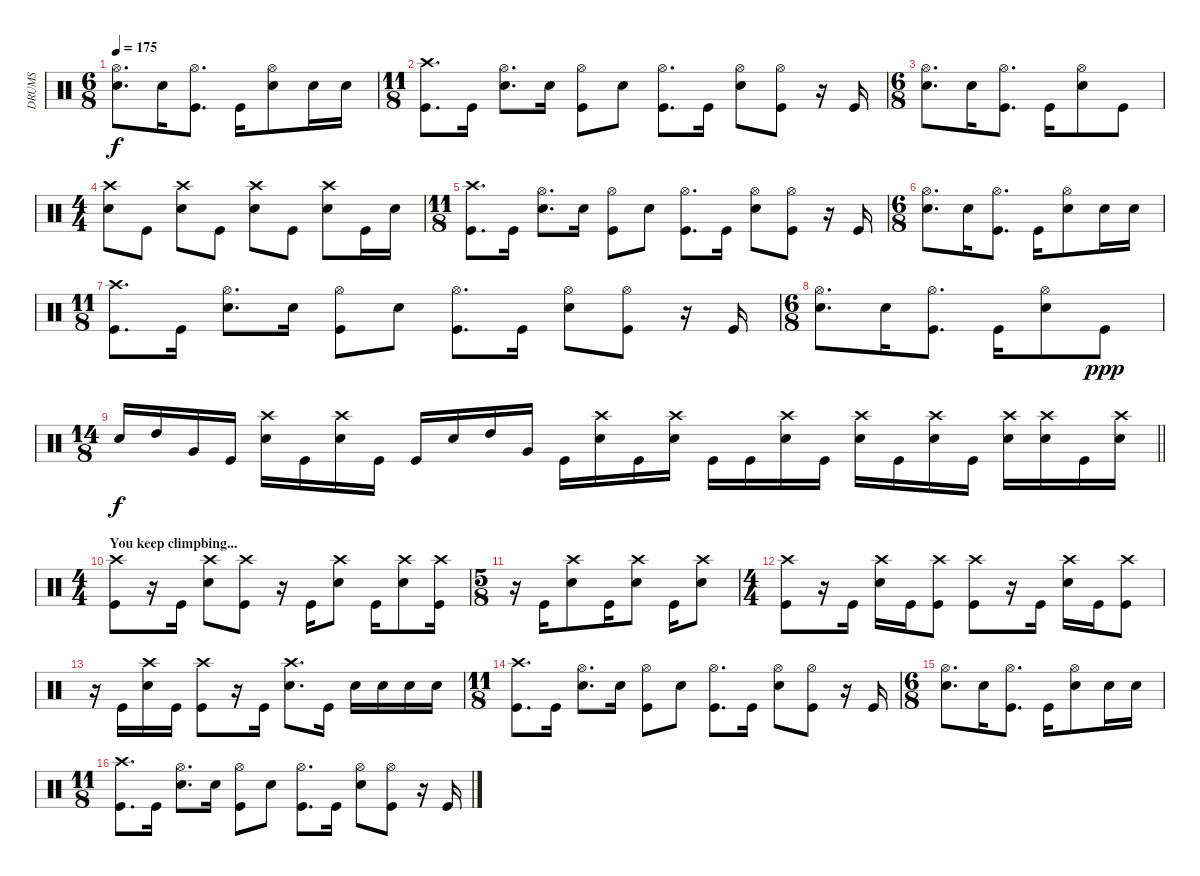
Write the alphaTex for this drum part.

\track ("DRUMS" "DRUMS") {instrument percussion}
\staff {score}
\articulation defaults
\ts (6 8)
\tempo 175
\clef neutral
\ks c
("Snare (hit) 2" "Hi-Hat (open)").8{d dy f} "Snare (hit) 2".16 ("Kick (hit)" "Hi-Hat (open)").8{d} "Kick (hit)".16 ("Snare (hit) 2" "Hi-Hat (open)").8 "Snare (hit) 2".16 "Snare (hit) 2".16 |
\ts (11 8)
("Crash high (hit)" "Kick (hit)").8{d} "Kick (hit)".16 ("Snare (hit) 2" "Hi-Hat (open)").8{d} "Snare (hit) 2".16 ("Kick (hit)" "Hi-Hat (open)").8 "Snare (hit) 2".8 ("Hi-Hat (open)" "Kick (hit)").8{d} "Kick (hit)".16 ("Snare (hit) 2" "Hi-Hat (open)").8 ("Kick (hit)" "Hi-Hat (open)").8 r.16 "Kick (hit)".16 |
\ts (6 8)
("Snare (hit) 2" "Hi-Hat (open)").8{d} "Snare (hit) 2".16 ("Kick (hit)" "Hi-Hat (open)").8{d} "Kick (hit)".16 ("Snare (hit) 2" "Hi-Hat (open)").8 "Kick (hit)".8 |
\ts (4 4)
("Snare (hit) 2" "Crash high (hit)").8 "Kick (hit)".8 ("Snare (hit) 2" "Crash high (hit)").8 "Kick (hit)".8 ("Snare (hit) 2" "Crash high (hit)").8 "Kick (hit)".8 ("Snare (hit) 2" "Crash high (hit)").8 "Kick (hit)".16 "Snare (hit) 2".16 |
\ts (11 8)
("Crash high (hit)" "Kick (hit)").8{d} "Kick (hit)".16 ("Snare (hit) 2" "Hi-Hat (open)").8{d} "Snare (hit) 2".16 ("Kick (hit)" "Hi-Hat (open)").8 "Snare (hit) 2".8 ("Hi-Hat (open)" "Kick (hit)").8{d} "Kick (hit)".16 ("Snare (hit) 2" "Hi-Hat (open)").8 ("Kick (hit)" "Hi-Hat (open)").8 r.16 "Kick (hit)".16 |
\ts (6 8)
("Snare (hit) 2" "Hi-Hat (open)").8{d} "Snare (hit) 2".16 ("Kick (hit)" "Hi-Hat (open)").8{d} "Kick (hit)".16 ("Snare (hit) 2" "Hi-Hat (open)").8 "Snare (hit) 2".16 "Snare (hit) 2".16 |
\ts (11 8)
("Crash high (hit)" "Kick (hit)").8{d} "Kick (hit)".16 ("Snare (hit) 2" "Hi-Hat (open)").8{d} "Snare (hit) 2".16 ("Kick (hit)" "Hi-Hat (open)").8 "Snare (hit) 2".8 ("Hi-Hat (open)" "Kick (hit)").8{d} "Kick (hit)".16 ("Snare (hit) 2" "Hi-Hat (open)").8 ("Kick (hit)" "Hi-Hat (open)").8 r.16 "Kick (hit)".16 |
\ts (6 8)
("Snare (hit) 2" "Hi-Hat (open)").8{d} "Snare (hit) 2".16 ("Kick (hit)" "Hi-Hat (open)").8{d} "Kick (hit)".16 ("Snare (hit) 2" "Hi-Hat (open)").8 "Kick (hit)".8{dy ppp} |
\ts (14 8)
\barLineRight lightlight "Snare (hit) 2".16{dy f} "High Tom (hit)".16 "Very Low Tom (hit)".16 "Kick (hit)".16
("Snare (hit) 2" "Crash high (hit)").16 "Kick (hit)".16 ("Snare (hit) 2" "Crash high (hit)").16 "Kick (hit)".16 "Kick (hit)".16 "Snare (hit) 2".16 "High Tom (hit)".16 "Very Low Tom (hit)".16 "Kick (hit)".16 ("Snare (hit) 2" "Crash high (hit)").16 "Kick (hit)".16 ("Snare (hit) 2" "Crash high (hit)").16 "Kick (hit)".16 "Kick (hit)".16 ("Snare (hit) 2" "Crash high (hit)").16 "Kick (hit)".16 ("Snare (hit) 2" "Crash high (hit)").16 "Kick (hit)".16 ("Snare (hit) 2" "Crash high (hit)").16 "Kick (hit)".16 ("Snare (hit) 2" "Crash high (hit)").16 ("Snare (hit) 2" "Crash high (hit)").16 "Kick (hit)".16 ("Snare (hit) 2" "Crash high (hit)").16 |
\ts (4 4)
\section ("" "You keep climpbing...")
("Kick (hit)" "Crash high (hit)").8 r.16 "Kick (hit)".16 ("Snare (hit) 2" "Crash high (hit)").8 ("Kick (hit)" "Crash high (hit)").8 r.16 "Kick (hit)".16 ("Snare (hit) 2" "Crash high (hit)").8 "Kick (hit)".16 ("Snare (hit) 2" "Crash high (hit)").8 ("Kick (hit)" "Crash high (hit)").16 |
\ts (5 8)
r.16 "Kick (hit)".16 ("Snare (hit) 2" "Crash high (hit)").8 "Kick (hit)".16 ("Snare (hit) 2" "Crash high (hit)").8 "Kick (hit)".16 ("Snare (hit) 2" "Crash high (hit)").8 |
\ts (4 4)
("Kick (hit)" "Crash high (hit)").8 r.16 "Kick (hit)".16 ("Snare (hit) 2" "Crash high (hit)").16 "Kick (hit)".16 ("Kick (hit)" "Crash high (hit)").8 ("Kick (hit)" "Crash high (hit)").8 r.16 "Kick (hit)".16 ("Snare (hit) 2" "Crash high (hit)").16 "Kick (hit)".16 ("Kick (hit)" "Crash high (hit)").8 |
r.16 "Kick (hit)".16 ("Snare (hit) 2" "Crash high (hit)").16 "Kick (hit)".16 ("Kick (hit)" "Crash high (hit)").8 r.16 "Kick (hit)".16 ("Snare (hit) 2" "Crash high (hit)").8{d} "Kick (hit)".16 "Snare (hit) 2".16 "Snare (hit) 2".16 "Snare (hit) 2".16 "Snare (hit) 2".16 |
\ts (11 8)
("Crash high (hit)" "Kick (hit)").8{d} "Kick (hit)".16 ("Snare (hit) 2" "Hi-Hat (open)").8{d} "Snare (hit) 2".16 ("Kick (hit)" "Hi-Hat (open)").8 "Snare (hit) 2".8 ("Hi-Hat (open)" "Kick (hit)").8{d} "Kick (hit)".16 ("Snare (hit) 2" "Hi-Hat (open)").8 ("Kick (hit)" "Hi-Hat (open)").8 r.16 "Kick (hit)".16 |
\ts (6 8)
("Snare (hit) 2" "Hi-Hat (open)").8{d} "Snare (hit) 2".16 ("Kick (hit)" "Hi-Hat (open)").8{d} "Kick (hit)".16 ("Snare (hit) 2" "Hi-Hat (open)").8 "Snare (hit) 2".16 "Snare (hit) 2".16 |
\ts (11 8)
("Crash high (hit)" "Kick (hit)").8{d} "Kick (hit)".16 ("Snare (hit) 2" "Hi-Hat (open)").8{d} "Snare (hit) 2".16 ("Kick (hit)" "Hi-Hat (open)").8 "Snare (hit) 2".8 ("Hi-Hat (open)" "Kick (hit)").8{d} "Kick (hit)".16 ("Snare (hit) 2" "Hi-Hat (open)").8 ("Kick (hit)" "Hi-Hat (open)").8 r.16 "Kick (hit)".16
